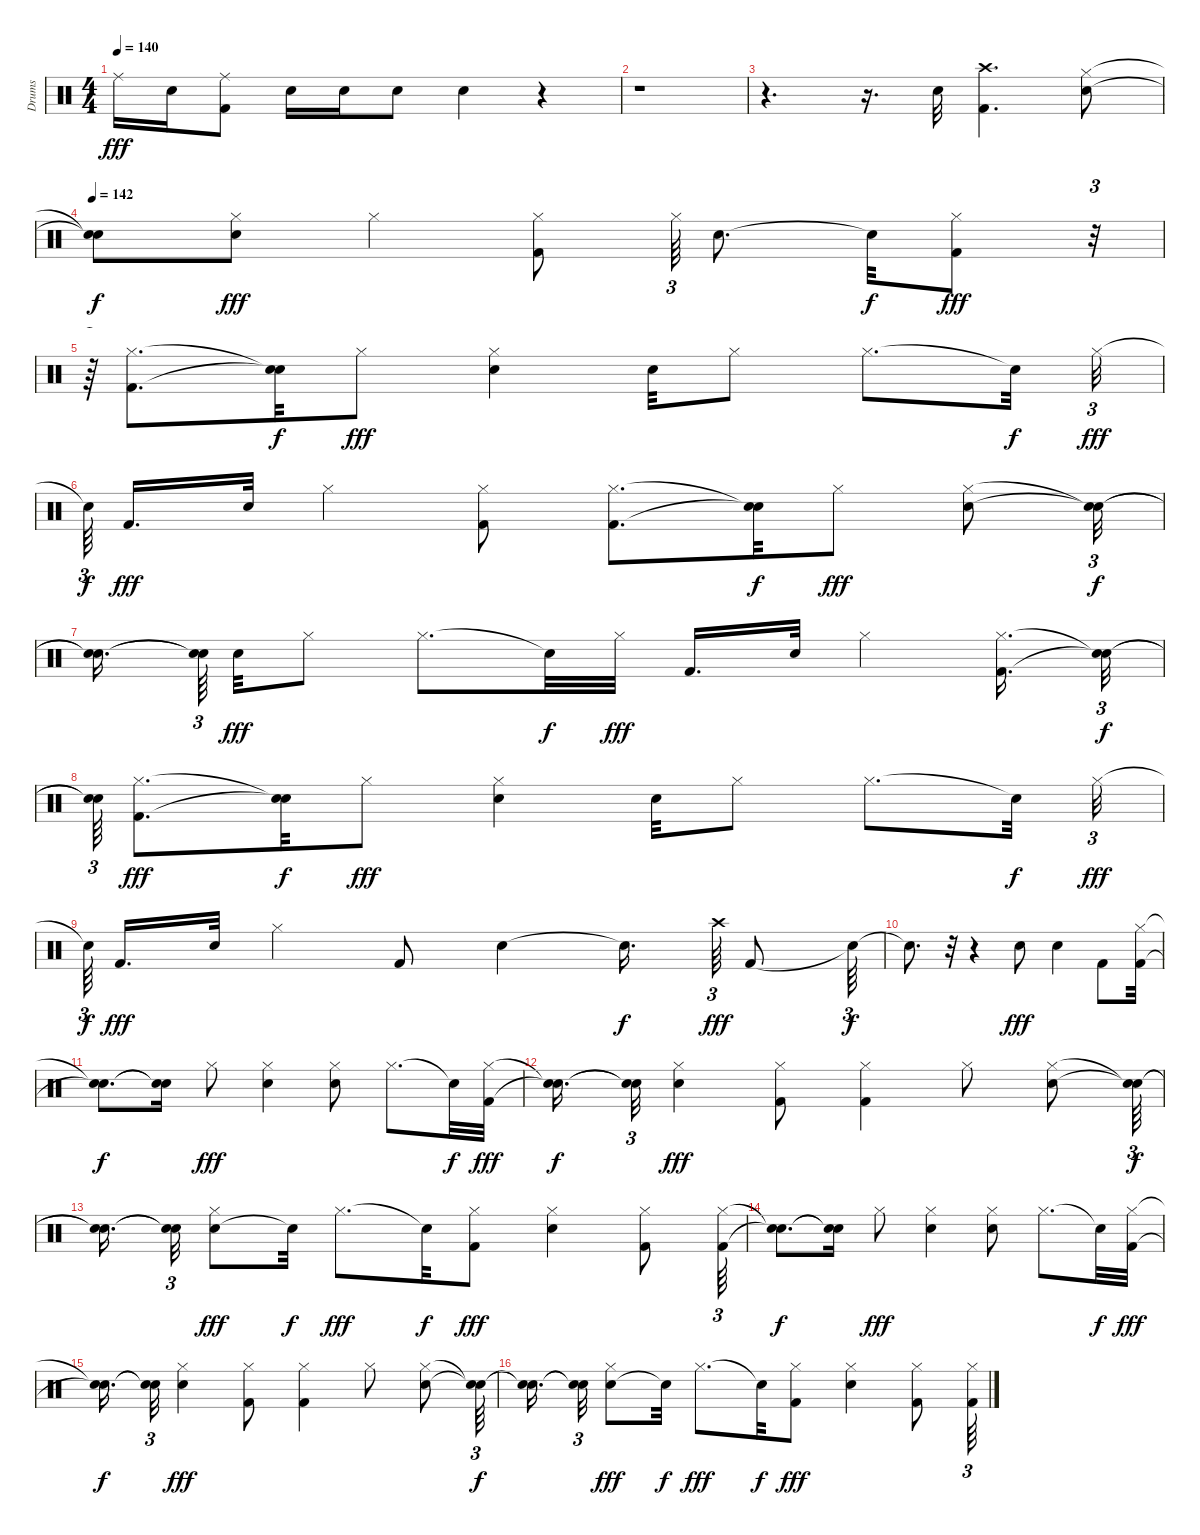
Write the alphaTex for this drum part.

\track ("Drums" "Drums") {instrument percussion}
\staff {score}
\articulation defaults
\ts (4 4)
\tempo 140
\clef neutral
\ks c "Ride (middle)".16{dy fff} "Electric Snare (hit)".16
("Ride (middle)" "Kick (hit) 2").8 "Snare (hit) 2".16 "Snare (hit) 2".16 "Snare (hit) 2".8 "Snare (hit) 2".4 r.4 |
r.1 |
r.4{d} r.16{d} "Snare (hit) 2".32 ("Crash high (hit)" "Kick (hit) 2").4{d} ("Snare (hit) 2" "Hi-Hat (closed)").8 |
\tempo 142
("Snare (hit)"{t} "Snare (hit)"{t}).8{dy f} ("Hi-Hat (closed)" "Snare (hit) 2").8{dy fff} "Hi-Hat (closed)".4 ("Hi-Hat (closed)" "Kick (hit) 2").8 "Hi-Hat (closed)".64{tu (3 2)} "Snare (hit) 2".8{d} "Snare (hit)"{t}.32{dy f} ("Kick (hit) 2" "Hi-Hat (closed)").8{dy fff} r.32{tu (3 2)} |
r.64{tu (3 2)} ("Kick (hit) 2" "Hi-Hat (closed)").8{d} ("Snare (hit)"{t} "Snare (hit)"{t}).32{dy f} "Hi-Hat (closed)".8{dy fff} ("Snare (hit) 2" "Hi-Hat (closed)").4 "Snare (hit) 2".32 "Hi-Hat (closed)".8 "Hi-Hat (closed)".8{d} "Snare (hit)"{t}.32{dy f} "Hi-Hat (closed)".32{tu (3 2) dy fff} |
"Snare (hit)"{t}.64{tu (3 2) dy f} "Kick (hit) 2".16{d dy fff} "Electric Snare (hit)".32 "Hi-Hat (closed)".4 ("Kick (hit) 2" "Hi-Hat (closed)").8 ("Hi-Hat (closed)" "Kick (hit) 2").8{d} ("Snare (hit)"{t} "Snare (hit)"{t}).32{dy f} "Hi-Hat (closed)".8{dy fff} ("Snare (hit) 2" "Hi-Hat (closed)").8 ("Snare (hit)"{t} "Snare (hit)"{t}).32{tu (3 2) dy f} |
("Snare (hit)"{t} "Snare (hit)"{t}).16{d} ("Snare (hit)"{t} "Snare (hit)"{t}).64{tu (3 2)} "Snare (hit) 2".32{dy fff} "Hi-Hat (closed)".8 "Hi-Hat (closed)".8{d} "Snare (hit)"{t}.32{dy f} "Hi-Hat (closed)".32{dy fff} "Kick (hit) 2".16{d} "Electric Snare (hit)".32 "Hi-Hat (closed)".4 ("Hi-Hat (closed)" "Kick (hit) 2").16{d} ("Snare (hit)"{t} "Snare (hit)"{t}).32{tu (3 2) dy f} |
("Snare (hit)"{t} "Snare (hit)"{t}).64{tu (3 2)} ("Kick (hit) 2" "Hi-Hat (closed)").8{d dy fff} ("Snare (hit)"{t} "Snare (hit)"{t}).32{dy f} "Hi-Hat (closed)".8{dy fff} ("Snare (hit) 2" "Hi-Hat (closed)").4 "Snare (hit) 2".32 "Hi-Hat (closed)".8 "Hi-Hat (closed)".8{d} "Snare (hit)"{t}.32{dy f} "Hi-Hat (closed)".32{tu (3 2) dy fff} |
"Snare (hit)"{t}.64{tu (3 2) dy f} "Kick (hit) 2".16{d dy fff} "Electric Snare (hit)".32 "Hi-Hat (closed)".4 "Kick (hit) 2".8 "Snare (hit) 2".4 "Snare (hit)"{t}.16{d dy f} "Crash high (hit)".64{tu (3 2) dy fff} "Kick (hit) 2".8 "Snare (hit)"{t}.64{tu (3 2) dy f} |
"Snare (hit)"{t}.8{d} r.32 r.4 "Electric Snare (hit)".8{dy fff} "Snare (hit) 2".4 "Kick (hit) 2".8 ("Kick (hit) 2" "Hi-Hat (closed)").32 |
("Snare (hit)"{t} "Snare (hit)"{t}).8{d dy f} ("Snare (hit)"{t} "Snare (hit)"{t}).16 "Hi-Hat (closed)".8{dy fff} ("Snare (hit) 2" "Hi-Hat (closed)").4 ("Snare (hit) 2" "Hi-Hat (closed)").8 "Hi-Hat (closed)".8{d} "Snare (hit)"{t}.32{dy f} ("Hi-Hat (closed)" "Kick (hit) 2").32{dy fff} |
("Snare (hit)"{t} "Snare (hit)"{t}).16{d dy f} ("Snare (hit)"{t} "Snare (hit)"{t}).32{tu (3 2)} ("Electric Snare (hit)" "Hi-Hat (closed)").4{dy fff} ("Hi-Hat (closed)" "Kick (hit) 2").8 ("Kick (hit) 2" "Hi-Hat (closed)").4 "Hi-Hat (closed)".8 ("Snare (hit) 2" "Hi-Hat (closed)").8 ("Snare (hit)"{t} "Snare (hit)"{t}).64{tu (3 2) dy f} |
("Snare (hit)"{t} "Snare (hit)"{t}).16{d} ("Snare (hit)"{t} "Snare (hit)"{t}).32{tu (3 2)} ("Snare (hit) 2" "Hi-Hat (closed)").8{dy fff} "Snare (hit)"{t}.32{dy f} "Hi-Hat (closed)".8{d dy fff} "Snare (hit)"{t}.32{dy f} ("Hi-Hat (closed)" "Kick (hit) 2").8{dy fff} ("Electric Snare (hit)" "Hi-Hat (closed)").4 ("Kick (hit) 2" "Hi-Hat (closed)").8 ("Kick (hit) 2" "Hi-Hat (closed)").64{tu (3 2)} |
("Snare (hit)"{t} "Snare (hit)"{t}).8{d dy f} ("Snare (hit)"{t} "Snare (hit)"{t}).16 "Hi-Hat (closed)".8{dy fff} ("Snare (hit) 2" "Hi-Hat (closed)").4 ("Snare (hit) 2" "Hi-Hat (closed)").8 "Hi-Hat (closed)".8{d} "Snare (hit)"{t}.32{dy f} ("Hi-Hat (closed)" "Kick (hit) 2").32{dy fff} |
("Snare (hit)"{t} "Snare (hit)"{t}).16{d dy f} ("Snare (hit)"{t} "Snare (hit)"{t}).32{tu (3 2)} ("Electric Snare (hit)" "Hi-Hat (closed)").4{dy fff} ("Kick (hit) 2" "Hi-Hat (closed)").8 ("Hi-Hat (closed)" "Kick (hit) 2").4 "Hi-Hat (closed)".8 ("Snare (hit) 2" "Hi-Hat (closed)").8 ("Snare (hit)"{t} "Snare (hit)"{t}).64{tu (3 2) dy f} |
("Snare (hit)"{t} "Snare (hit)"{t}).16{d} ("Snare (hit)"{t} "Snare (hit)"{t}).32{tu (3 2)} ("Snare (hit) 2" "Hi-Hat (closed)").8{dy fff} "Snare (hit)"{t}.32{dy f} "Hi-Hat (closed)".8{d dy fff} "Snare (hit)"{t}.32{dy f} ("Hi-Hat (closed)" "Kick (hit) 2").8{dy fff} ("Electric Snare (hit)" "Hi-Hat (closed)").4 ("Kick (hit) 2" "Hi-Hat (closed)").8 ("Kick (hit) 2" "Hi-Hat (closed)").64{tu (3 2)}
